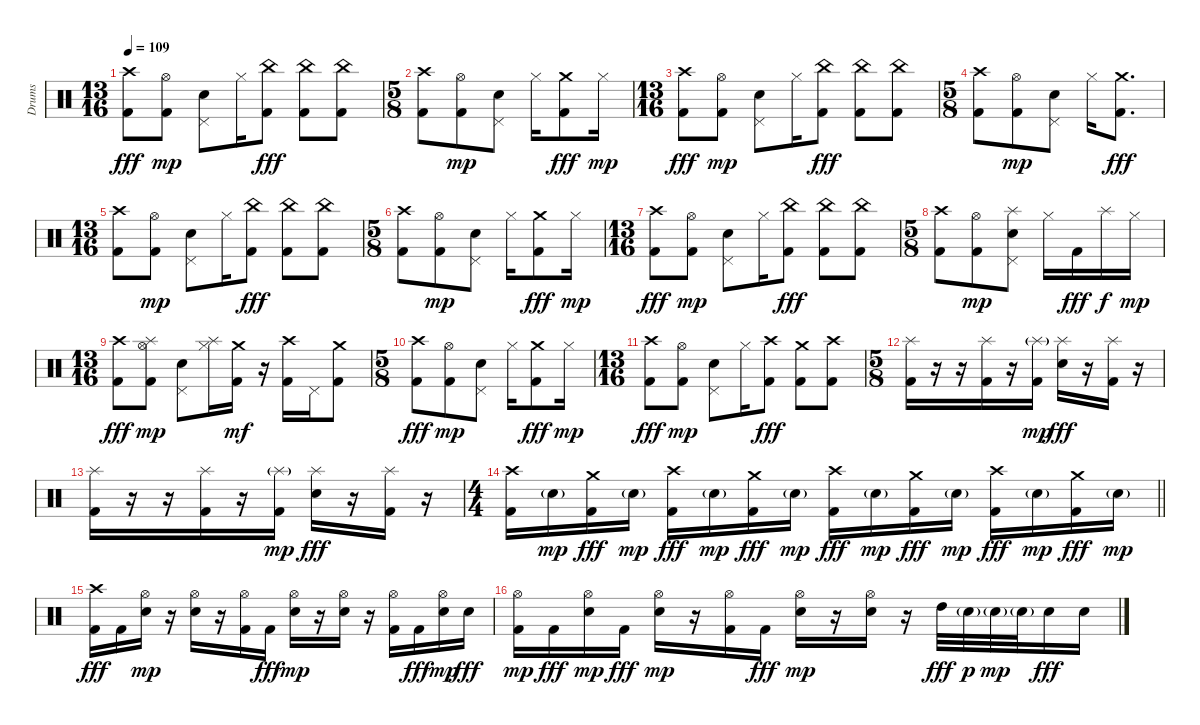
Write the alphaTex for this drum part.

\track ("Drums" "Drums") {instrument percussion}
\staff {score}
\articulation defaults
\ts (13 16)
\tempo 109
\clef neutral
\ks c
("Kick (hit) 2" "Crash high (hit)").8{dy fff} ("Kick (hit) 2" "Hi-Hat (open)").8{dy mp} ("Electric Snare (hit)" "Pedal Hi-Hat (hit)").8 "Hi-Hat (closed)".16 ("Kick (hit) 2" "China (hit)").8{dy fff} ("Kick (hit) 2" "China (hit)").8 ("Kick (hit) 2" "China (hit)").8 |
\ts (5 8)
("Kick (hit) 2" "Crash high (hit)").8 ("Kick (hit) 2" "Hi-Hat (open)").8{dy mp} ("Electric Snare (hit)" "Pedal Hi-Hat (hit)").8 "Hi-Hat (closed)".16 ("Kick (hit) 2" "Crash medium (hit)").8{dy fff} "Hi-Hat (closed)".16{dy mp} |
\ts (13 16)
("Kick (hit) 2" "Crash high (hit)").8{dy fff} ("Kick (hit) 2" "Hi-Hat (open)").8{dy mp} ("Electric Snare (hit)" "Pedal Hi-Hat (hit)").8 "Hi-Hat (closed)".16 ("Kick (hit) 2" "China (hit)").8{dy fff} ("Kick (hit) 2" "China (hit)").8 ("Kick (hit) 2" "China (hit)").8 |
\ts (5 8)
("Kick (hit) 2" "Crash high (hit)").8 ("Kick (hit) 2" "Hi-Hat (open)").8{dy mp} ("Electric Snare (hit)" "Pedal Hi-Hat (hit)").8 "Hi-Hat (closed)".16 ("Kick (hit) 2" "Crash medium (hit)").8{d dy fff} |
\ts (13 16)
("Kick (hit) 2" "Crash high (hit)").8 ("Kick (hit) 2" "Hi-Hat (open)").8{dy mp} ("Electric Snare (hit)" "Pedal Hi-Hat (hit)").8 "Hi-Hat (closed)".16 ("Kick (hit) 2" "China (hit)").8{dy fff} ("Kick (hit) 2" "China (hit)").8 ("Kick (hit) 2" "China (hit)").8 |
\ts (5 8)
("Kick (hit) 2" "Crash high (hit)").8 ("Kick (hit) 2" "Hi-Hat (open)").8{dy mp} ("Electric Snare (hit)" "Pedal Hi-Hat (hit)").8 "Hi-Hat (closed)".16 ("Kick (hit) 2" "Crash medium (hit)").8{dy fff} "Hi-Hat (closed)".16{dy mp} |
\ts (13 16)
("Kick (hit) 2" "Crash high (hit)").8{dy fff} ("Kick (hit) 2" "Hi-Hat (open)").8{dy mp} ("Electric Snare (hit)" "Pedal Hi-Hat (hit)").8 "Hi-Hat (closed)".16 ("Kick (hit) 2" "China (hit)").8{dy fff} ("Kick (hit) 2" "China (hit)").8 ("Kick (hit) 2" "China (hit)").8 |
\ts (5 8)
("Kick (hit) 2" "Crash high (hit)").8 ("Kick (hit) 2" "Hi-Hat (open)").8{dy mp} ("Electric Snare (hit)" "Pedal Hi-Hat (hit)" "Splash (hit)").8 "Hi-Hat (closed)".16 "Kick (hit) 2".16{dy fff} "Splash (hit)".16{dy f} "Hi-Hat (closed)".16{dy mp} |
\ts (13 16)
("Kick (hit) 2" "Crash high (hit)").8{dy fff} ("Kick (hit) 2" "Hi-Hat (open)" "Splash (hit)").8{dy mp} ("Electric Snare (hit)" "Pedal Hi-Hat (hit)").8 ("Hi-Hat (closed)" "Splash (hit)").16 ("Kick (hit) 2" "Crash medium (hit)").16{dy mf} r.16 ("Kick (hit) 2" "Crash high (hit)").16 "Pedal Hi-Hat (hit)".16 ("Kick (hit) 2" "Crash medium (hit)").8 |
\ts (5 8)
("Kick (hit) 2" "Crash high (hit)").8{dy fff} ("Kick (hit) 2" "Hi-Hat (open)").8{dy mp} ("Electric Snare (hit)" "Pedal Hi-Hat (hit)").8 "Hi-Hat (closed)".16 ("Kick (hit) 2" "Crash medium (hit)").8{dy fff} "Hi-Hat (closed)".16{dy mp} |
\ts (13 16)
("Kick (hit) 2" "Crash high (hit)").8{dy fff} ("Kick (hit) 2" "Hi-Hat (open)").8{dy mp} ("Electric Snare (hit)" "Pedal Hi-Hat (hit)").8 "Hi-Hat (closed)".16 ("Kick (hit) 2" "Crash high (hit)").8{dy fff} ("Kick (hit) 2" "Crash medium (hit)").8 ("Kick (hit) 2" "Crash high (hit)").8 |
\ts (5 8)
("Kick (hit) 2" "Splash (hit)").16 r.16 r.16 ("Kick (hit) 2" "Splash (hit)").16 r.16 ("Kick (hit) 2" "Splash (hit)"{g}).16{dy mp} ("Electric Snare (hit)" "Splash (hit)").16{dy fff} r.16 ("Kick (hit) 2" "Splash (hit)").16 r.16 |
("Kick (hit) 2" "Splash (hit)").16 r.16 r.16 ("Kick (hit) 2" "Splash (hit)").16 r.16 ("Kick (hit) 2" "Splash (hit)"{g}).16{dy mp} ("Electric Snare (hit)" "Splash (hit)").16{dy fff} r.16 ("Kick (hit) 2" "Splash (hit)").16 r.16 |
\ts (4 4)
\barLineRight lightlight
("Kick (hit) 2" "Crash high (hit)").16 "Electric Snare (hit)"{g}.16{dy mp} ("Kick (hit) 2" "Crash medium (hit)").16{dy fff} "Electric Snare (hit)"{g}.16{dy mp} ("Kick (hit) 2" "Crash high (hit)").16{dy fff} "Electric Snare (hit)"{g}.16{dy mp} ("Kick (hit) 2" "Crash medium (hit)").16{dy fff} "Electric Snare (hit)"{g}.16{dy mp} ("Kick (hit) 2" "Crash high (hit)").16{dy fff} "Electric Snare (hit)"{g}.16{dy mp} ("Kick (hit) 2" "Crash medium (hit)").16{dy fff} "Electric Snare (hit)"{g}.16{dy mp} ("Kick (hit) 2" "Crash high (hit)").16{dy fff} "Electric Snare (hit)"{g}.16{dy mp} ("Kick (hit) 2" "Crash medium (hit)").16{dy fff} "Electric Snare (hit)"{g}.16{dy mp} |
("Kick (hit) 2" "Crash high (hit)").16{dy fff} "Kick (hit) 2".16 ("Electric Snare (hit)" "Hi-Hat (open)").16{dy mp} r.16 ("Electric Snare (hit)" "Hi-Hat (open)").16 r.16 ("Kick (hit) 2" "Hi-Hat (open)").16 "Kick (hit) 2".16{dy fff} ("Electric Snare (hit)" "Hi-Hat (open)").16{dy mp} r.16 ("Electric Snare (hit)" "Hi-Hat (open)").16 r.16 ("Kick (hit) 2" "Hi-Hat (open)").16 "Kick (hit) 2".16{dy fff} ("Electric Snare (hit)" "Hi-Hat (open)").16{dy mp} "Electric Snare (hit)".16{dy fff} |
("Kick (hit) 2" "Hi-Hat (open)").16{dy mp} "Kick (hit) 2".16{dy fff} ("Electric Snare (hit)" "Hi-Hat (open)").16{dy mp} "Kick (hit) 2".16{dy fff} ("Electric Snare (hit)" "Hi-Hat (open)").16{dy mp} r.16 ("Kick (hit) 2" "Hi-Hat (open)").16 "Kick (hit) 2".16{dy fff} ("Electric Snare (hit)" "Hi-Hat (open)").16{dy mp} r.16 ("Electric Snare (hit)" "Hi-Hat (open)").16 r.16 "High Tom (hit)".32{dy fff} "Electric Snare (hit)"{g}.32{dy p} "Electric Snare (hit)"{g}.32{dy mp} "Electric Snare (hit)"{g}.32 "Electric Snare (hit)".16{dy fff} "Electric Snare (hit)".16
